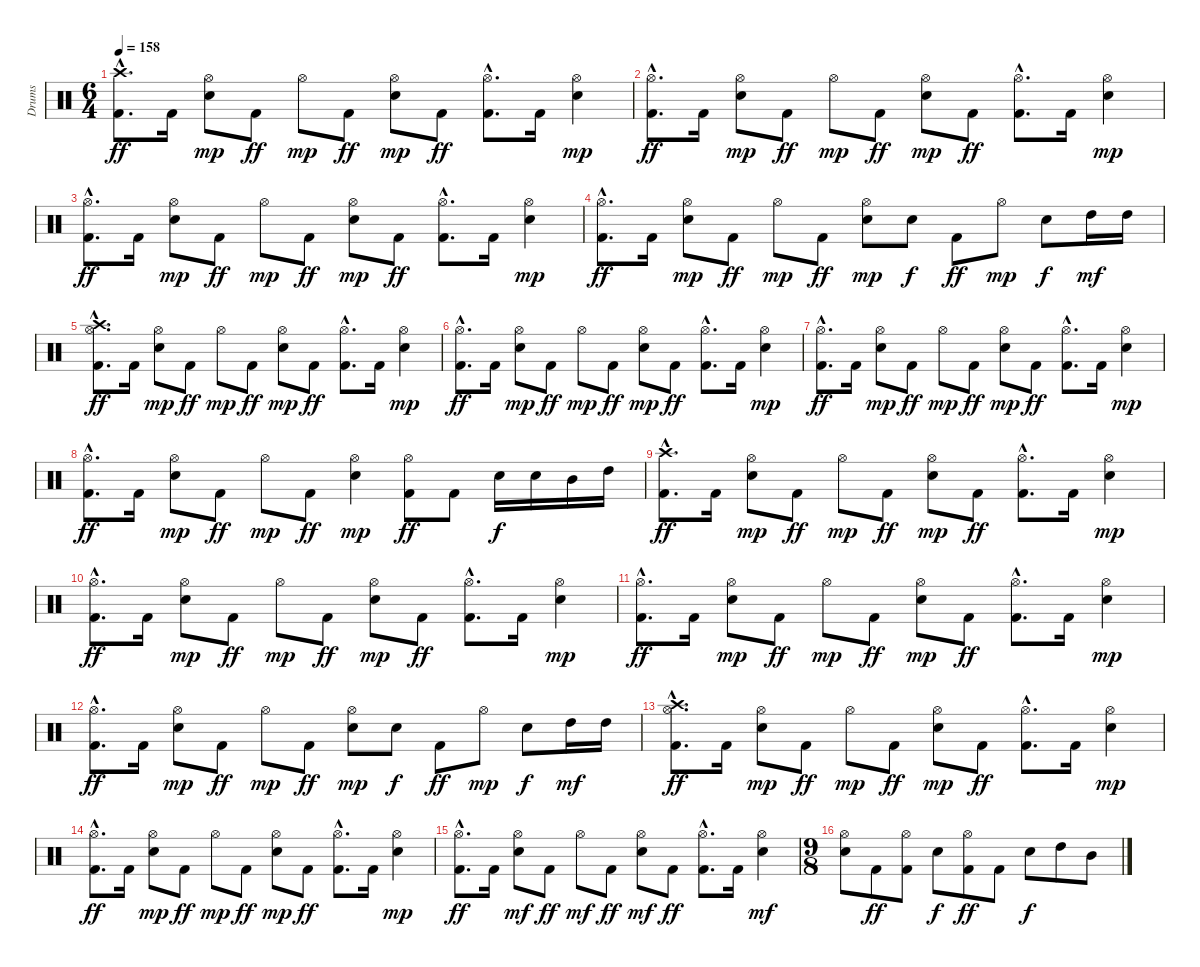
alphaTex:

\track ("Drums" "Drums") {instrument percussion}
\staff {score}
\articulation defaults
\ts (6 4)
\tempo 158
\clef neutral
\ks c
("Crash high (hit)"{hac} "Kick (hit) 2"{hac}).8{d dy ff} "Kick (hit) 2".16 ("Hi-Hat (open)" "Electric Snare (hit)").8{dy mp} "Kick (hit) 2".8{dy ff} "Hi-Hat (open)".8{dy mp} "Kick (hit) 2".8{dy ff} ("Hi-Hat (open)" "Electric Snare (hit)").8{dy mp} "Kick (hit) 2".8{dy ff} ("Hi-Hat (open)"{hac} "Kick (hit) 2"{hac}).8{d} "Kick (hit) 2".16 ("Hi-Hat (open)" "Electric Snare (hit)").4{dy mp} |
("Hi-Hat (open)"{hac} "Kick (hit) 2"{hac}).8{d dy ff} "Kick (hit) 2".16 ("Hi-Hat (open)" "Electric Snare (hit)").8{dy mp} "Kick (hit) 2".8{dy ff} "Hi-Hat (open)".8{dy mp} "Kick (hit) 2".8{dy ff} ("Hi-Hat (open)" "Electric Snare (hit)").8{dy mp} "Kick (hit) 2".8{dy ff} ("Hi-Hat (open)"{hac} "Kick (hit) 2"{hac}).8{d} "Kick (hit) 2".16 ("Hi-Hat (open)" "Electric Snare (hit)").4{dy mp} |
("Hi-Hat (open)"{hac} "Kick (hit) 2"{hac}).8{d dy ff} "Kick (hit) 2".16 ("Hi-Hat (open)" "Electric Snare (hit)").8{dy mp} "Kick (hit) 2".8{dy ff} "Hi-Hat (open)".8{dy mp} "Kick (hit) 2".8{dy ff} ("Hi-Hat (open)" "Electric Snare (hit)").8{dy mp} "Kick (hit) 2".8{dy ff} ("Hi-Hat (open)"{hac} "Kick (hit) 2"{hac}).8{d} "Kick (hit) 2".16 ("Hi-Hat (open)" "Electric Snare (hit)").4{dy mp} |
("Hi-Hat (open)"{hac} "Kick (hit) 2"{hac}).8{d dy ff} "Kick (hit) 2".16 ("Hi-Hat (open)" "Electric Snare (hit)").8{dy mp} "Kick (hit) 2".8{dy ff} "Hi-Hat (open)".8{dy mp} "Kick (hit) 2".8{dy ff} ("Hi-Hat (open)" "Electric Snare (hit)").8{dy mp} "Electric Snare (hit)".8{dy f} "Kick (hit) 2".8{dy ff} "Hi-Hat (open)".8{dy mp} "Electric Snare (hit)".8{dy f} "High Tom (hit)".16{dy mf} "High Tom (hit)".16 |
("Crash high (hit)"{hac} "Hi-Hat (open)"{hac} "Kick (hit) 2"{hac}).8{d dy ff} "Kick (hit) 2".16 ("Hi-Hat (open)" "Electric Snare (hit)").8{dy mp} "Kick (hit) 2".8{dy ff} "Hi-Hat (open)".8{dy mp} "Kick (hit) 2".8{dy ff} ("Hi-Hat (open)" "Electric Snare (hit)").8{dy mp} "Kick (hit) 2".8{dy ff} ("Hi-Hat (open)"{hac} "Kick (hit) 2"{hac}).8{d} "Kick (hit) 2".16 ("Hi-Hat (open)" "Electric Snare (hit)").4{dy mp} |
("Hi-Hat (open)"{hac} "Kick (hit) 2"{hac}).8{d dy ff} "Kick (hit) 2".16 ("Hi-Hat (open)" "Electric Snare (hit)").8{dy mp} "Kick (hit) 2".8{dy ff} "Hi-Hat (open)".8{dy mp} "Kick (hit) 2".8{dy ff} ("Hi-Hat (open)" "Electric Snare (hit)").8{dy mp} "Kick (hit) 2".8{dy ff} ("Hi-Hat (open)"{hac} "Kick (hit) 2"{hac}).8{d} "Kick (hit) 2".16 ("Hi-Hat (open)" "Electric Snare (hit)").4{dy mp} |
("Hi-Hat (open)"{hac} "Kick (hit) 2"{hac}).8{d dy ff} "Kick (hit) 2".16 ("Hi-Hat (open)" "Electric Snare (hit)").8{dy mp} "Kick (hit) 2".8{dy ff} "Hi-Hat (open)".8{dy mp} "Kick (hit) 2".8{dy ff} ("Hi-Hat (open)" "Electric Snare (hit)").8{dy mp} "Kick (hit) 2".8{dy ff} ("Hi-Hat (open)"{hac} "Kick (hit) 2"{hac}).8{d} "Kick (hit) 2".16 ("Hi-Hat (open)" "Electric Snare (hit)").4{dy mp} |
("Hi-Hat (open)"{hac} "Kick (hit) 2"{hac}).8{d dy ff} "Kick (hit) 2".16 ("Hi-Hat (open)" "Electric Snare (hit)").8{dy mp} "Kick (hit) 2".8{dy ff} "Hi-Hat (open)".8{dy mp} "Kick (hit) 2".8{dy ff} ("Hi-Hat (open)" "Electric Snare (hit)").4{dy mp} ("Hi-Hat (open)" "Kick (hit) 2").8{dy ff} "Kick (hit) 2".8 "Electric Snare (hit)".16{dy f} "Electric Snare (hit)".16 "Mid Tom (hit)".16 "High Tom (hit)".16 |
("Crash high (hit)"{hac} "Kick (hit) 2"{hac}).8{d dy ff} "Kick (hit) 2".16 ("Hi-Hat (open)" "Electric Snare (hit)").8{dy mp} "Kick (hit) 2".8{dy ff} "Hi-Hat (open)".8{dy mp} "Kick (hit) 2".8{dy ff} ("Hi-Hat (open)" "Electric Snare (hit)").8{dy mp} "Kick (hit) 2".8{dy ff} ("Hi-Hat (open)"{hac} "Kick (hit) 2"{hac}).8{d} "Kick (hit) 2".16 ("Hi-Hat (open)" "Electric Snare (hit)").4{dy mp} |
("Hi-Hat (open)"{hac} "Kick (hit) 2"{hac}).8{d dy ff} "Kick (hit) 2".16 ("Hi-Hat (open)" "Electric Snare (hit)").8{dy mp} "Kick (hit) 2".8{dy ff} "Hi-Hat (open)".8{dy mp} "Kick (hit) 2".8{dy ff} ("Hi-Hat (open)" "Electric Snare (hit)").8{dy mp} "Kick (hit) 2".8{dy ff} ("Hi-Hat (open)"{hac} "Kick (hit) 2"{hac}).8{d} "Kick (hit) 2".16 ("Hi-Hat (open)" "Electric Snare (hit)").4{dy mp} |
("Hi-Hat (open)"{hac} "Kick (hit) 2"{hac}).8{d dy ff} "Kick (hit) 2".16 ("Hi-Hat (open)" "Electric Snare (hit)").8{dy mp} "Kick (hit) 2".8{dy ff} "Hi-Hat (open)".8{dy mp} "Kick (hit) 2".8{dy ff} ("Hi-Hat (open)" "Electric Snare (hit)").8{dy mp} "Kick (hit) 2".8{dy ff} ("Hi-Hat (open)"{hac} "Kick (hit) 2"{hac}).8{d} "Kick (hit) 2".16 ("Hi-Hat (open)" "Electric Snare (hit)").4{dy mp} |
("Hi-Hat (open)"{hac} "Kick (hit) 2"{hac}).8{d dy ff} "Kick (hit) 2".16 ("Hi-Hat (open)" "Electric Snare (hit)").8{dy mp} "Kick (hit) 2".8{dy ff} "Hi-Hat (open)".8{dy mp} "Kick (hit) 2".8{dy ff} ("Hi-Hat (open)" "Electric Snare (hit)").8{dy mp} "Electric Snare (hit)".8{dy f} "Kick (hit) 2".8{dy ff} "Hi-Hat (open)".8{dy mp} "Electric Snare (hit)".8{dy f} "High Tom (hit)".16{dy mf} "High Tom (hit)".16 |
("Crash high (hit)"{hac} "Hi-Hat (open)"{hac} "Kick (hit) 2"{hac}).8{d dy ff} "Kick (hit) 2".16 ("Hi-Hat (open)" "Electric Snare (hit)").8{dy mp} "Kick (hit) 2".8{dy ff} "Hi-Hat (open)".8{dy mp} "Kick (hit) 2".8{dy ff} ("Hi-Hat (open)" "Electric Snare (hit)").8{dy mp} "Kick (hit) 2".8{dy ff} ("Hi-Hat (open)"{hac} "Kick (hit) 2"{hac}).8{d} "Kick (hit) 2".16 ("Hi-Hat (open)" "Electric Snare (hit)").4{dy mp} |
("Hi-Hat (open)"{hac} "Kick (hit) 2"{hac}).8{d dy ff} "Kick (hit) 2".16 ("Hi-Hat (open)" "Electric Snare (hit)").8{dy mp} "Kick (hit) 2".8{dy ff} "Hi-Hat (open)".8{dy mp} "Kick (hit) 2".8{dy ff} ("Hi-Hat (open)" "Electric Snare (hit)").8{dy mp} "Kick (hit) 2".8{dy ff} ("Hi-Hat (open)"{hac} "Kick (hit) 2"{hac}).8{d} "Kick (hit) 2".16 ("Hi-Hat (open)" "Electric Snare (hit)").4{dy mp} |
("Hi-Hat (open)"{hac} "Kick (hit) 2"{hac}).8{d dy ff} "Kick (hit) 2".16 ("Hi-Hat (open)" "Electric Snare (hit)").8{dy mf} "Kick (hit) 2".8{dy ff} "Hi-Hat (open)".8{dy mf} "Kick (hit) 2".8{dy ff} ("Hi-Hat (open)" "Electric Snare (hit)").8{dy mf} "Kick (hit) 2".8{dy ff} ("Hi-Hat (open)"{hac} "Kick (hit) 2"{hac}).8{d} "Kick (hit) 2".16 ("Hi-Hat (open)" "Electric Snare (hit)").4{dy mf} |
\ts (9 8)
("Hi-Hat (open)" "Electric Snare (hit)").8 "Kick (hit) 2".8{dy ff} ("Hi-Hat (open)" "Kick (hit) 2").8 "Electric Snare (hit)".8{dy f} ("Hi-Hat (open)" "Kick (hit) 2").8{dy ff} "Kick (hit) 2".8 "Electric Snare (hit)".8{dy f} "High Tom (hit)".8 "Mid Tom (hit)".8
